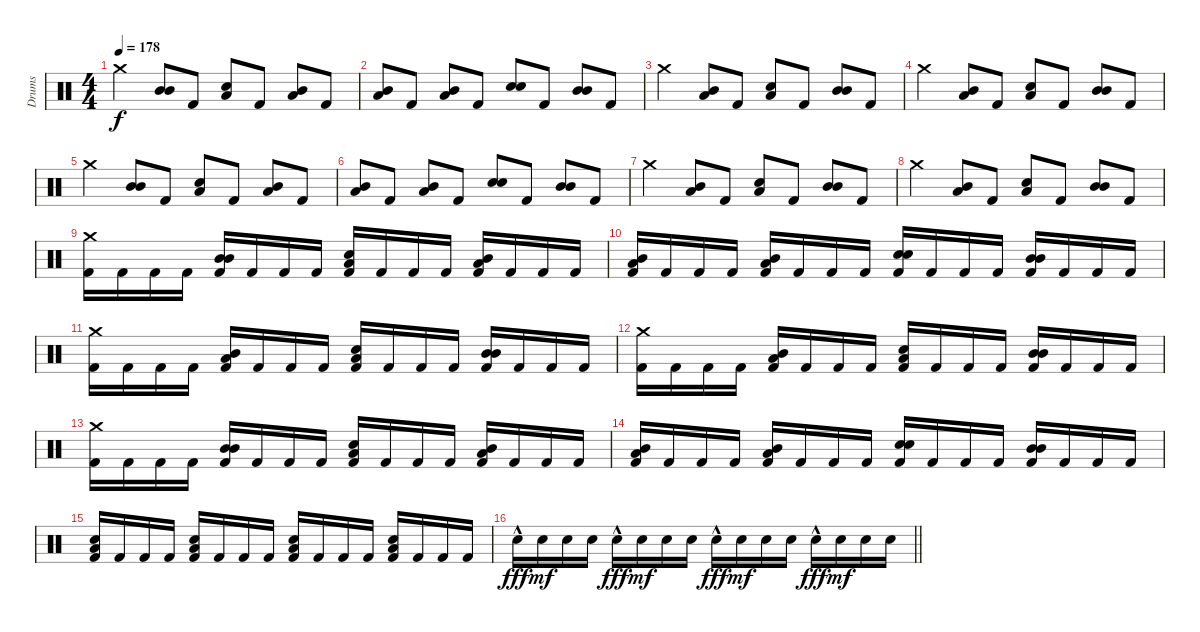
\track ("Drums" "Drums") {instrument percussion}
\staff {score}
\articulation defaults
\ts (4 4)
\tempo 178
\clef neutral
\ks c "Crash medium (hit)".4{dy f}
("Mid Tom (hit)" "Mid Tom (hit)").8 "Kick (hit) 2".8 ("Low Floor Tom (hit)" "Electric Snare (hit)").8 "Kick (hit) 2".8 ("Mid Tom (hit)" "Low Floor Tom (hit)").8 "Kick (hit) 2".8 |
("Mid Tom (hit)" "Low Floor Tom (hit)").8 "Kick (hit) 2".8 ("Mid Tom (hit)" "Low Floor Tom (hit)").8 "Kick (hit) 2".8 ("Electric Snare (hit)" "Electric Snare (hit)").8 "Kick (hit) 2".8 ("Mid Tom (hit)" "Mid Tom (hit)").8 "Kick (hit) 2".8 |
"Crash medium (hit)".4 ("Mid Tom (hit)" "Low Floor Tom (hit)").8 "Kick (hit) 2".8 ("Low Floor Tom (hit)" "Electric Snare (hit)").8 "Kick (hit) 2".8 ("Mid Tom (hit)" "Mid Tom (hit)").8 "Kick (hit) 2".8 |
"Crash medium (hit)".4 ("Mid Tom (hit)" "Low Floor Tom (hit)").8 "Kick (hit) 2".8 ("Low Floor Tom (hit)" "Electric Snare (hit)").8 "Kick (hit) 2".8 ("Mid Tom (hit)" "Mid Tom (hit)").8 "Kick (hit) 2".8 |
"Crash medium (hit)".4 ("Mid Tom (hit)" "Mid Tom (hit)").8 "Kick (hit) 2".8 ("Low Floor Tom (hit)" "Electric Snare (hit)").8 "Kick (hit) 2".8 ("Mid Tom (hit)" "Low Floor Tom (hit)").8 "Kick (hit) 2".8 |
("Mid Tom (hit)" "Low Floor Tom (hit)").8 "Kick (hit) 2".8 ("Mid Tom (hit)" "Low Floor Tom (hit)").8 "Kick (hit) 2".8 ("Electric Snare (hit)" "Electric Snare (hit)").8 "Kick (hit) 2".8 ("Mid Tom (hit)" "Mid Tom (hit)").8 "Kick (hit) 2".8 |
"Crash medium (hit)".4 ("Mid Tom (hit)" "Low Floor Tom (hit)").8 "Kick (hit) 2".8 ("Low Floor Tom (hit)" "Electric Snare (hit)").8 "Kick (hit) 2".8 ("Mid Tom (hit)" "Mid Tom (hit)").8 "Kick (hit) 2".8 |
"Crash medium (hit)".4 ("Mid Tom (hit)" "Low Floor Tom (hit)").8 "Kick (hit) 2".8 ("Low Floor Tom (hit)" "Electric Snare (hit)").8 "Kick (hit) 2".8 ("Mid Tom (hit)" "Mid Tom (hit)").8 "Kick (hit) 2".8 |
("Crash medium (hit)" "Kick (hit) 2").16 "Kick (hit) 2".16 "Kick (hit) 2".16 "Kick (hit) 2".16 ("Mid Tom (hit)" "Mid Tom (hit)" "Kick (hit) 2").16 "Kick (hit) 2".16 "Kick (hit) 2".16 "Kick (hit) 2".16 ("Low Floor Tom (hit)" "Electric Snare (hit)" "Kick (hit) 2").16 "Kick (hit) 2".16 "Kick (hit) 2".16 "Kick (hit) 2".16 ("Mid Tom (hit)" "Low Floor Tom (hit)" "Kick (hit) 2").16 "Kick (hit) 2".16 "Kick (hit) 2".16 "Kick (hit) 2".16 |
("Mid Tom (hit)" "Low Floor Tom (hit)" "Kick (hit) 2").16 "Kick (hit) 2".16 "Kick (hit) 2".16 "Kick (hit) 2".16 ("Mid Tom (hit)" "Low Floor Tom (hit)" "Kick (hit) 2").16 "Kick (hit) 2".16 "Kick (hit) 2".16 "Kick (hit) 2".16 ("Electric Snare (hit)" "Electric Snare (hit)" "Kick (hit) 2").16 "Kick (hit) 2".16 "Kick (hit) 2".16 "Kick (hit) 2".16 ("Mid Tom (hit)" "Mid Tom (hit)" "Kick (hit) 2").16 "Kick (hit) 2".16 "Kick (hit) 2".16 "Kick (hit) 2".16 |
("Crash medium (hit)" "Kick (hit) 2").16 "Kick (hit) 2".16 "Kick (hit) 2".16 "Kick (hit) 2".16 ("Mid Tom (hit)" "Low Floor Tom (hit)" "Kick (hit) 2").16 "Kick (hit) 2".16 "Kick (hit) 2".16 "Kick (hit) 2".16 ("Low Floor Tom (hit)" "Electric Snare (hit)" "Kick (hit) 2").16 "Kick (hit) 2".16 "Kick (hit) 2".16 "Kick (hit) 2".16 ("Mid Tom (hit)" "Mid Tom (hit)" "Kick (hit) 2").16 "Kick (hit) 2".16 "Kick (hit) 2".16 "Kick (hit) 2".16 |
("Crash medium (hit)" "Kick (hit) 2").16 "Kick (hit) 2".16 "Kick (hit) 2".16 "Kick (hit) 2".16 ("Mid Tom (hit)" "Low Floor Tom (hit)" "Kick (hit) 2").16 "Kick (hit) 2".16 "Kick (hit) 2".16 "Kick (hit) 2".16 ("Low Floor Tom (hit)" "Electric Snare (hit)" "Kick (hit) 2").16 "Kick (hit) 2".16 "Kick (hit) 2".16 "Kick (hit) 2".16 ("Mid Tom (hit)" "Mid Tom (hit)" "Kick (hit) 2").16 "Kick (hit) 2".16 "Kick (hit) 2".16 "Kick (hit) 2".16 |
("Crash medium (hit)" "Kick (hit) 2").16 "Kick (hit) 2".16 "Kick (hit) 2".16 "Kick (hit) 2".16 ("Mid Tom (hit)" "Mid Tom (hit)" "Kick (hit) 2").16 "Kick (hit) 2".16 "Kick (hit) 2".16 "Kick (hit) 2".16 ("Low Floor Tom (hit)" "Electric Snare (hit)" "Kick (hit) 2").16 "Kick (hit) 2".16 "Kick (hit) 2".16 "Kick (hit) 2".16 ("Mid Tom (hit)" "Low Floor Tom (hit)" "Kick (hit) 2").16 "Kick (hit) 2".16 "Kick (hit) 2".16 "Kick (hit) 2".16 |
("Mid Tom (hit)" "Low Floor Tom (hit)" "Kick (hit) 2").16 "Kick (hit) 2".16 "Kick (hit) 2".16 "Kick (hit) 2".16 ("Mid Tom (hit)" "Low Floor Tom (hit)" "Kick (hit) 2").16 "Kick (hit) 2".16 "Kick (hit) 2".16 "Kick (hit) 2".16 ("Electric Snare (hit)" "Electric Snare (hit)" "Kick (hit) 2").16 "Kick (hit) 2".16 "Kick (hit) 2".16 "Kick (hit) 2".16 ("Mid Tom (hit)" "Mid Tom (hit)" "Kick (hit) 2").16 "Kick (hit) 2".16 "Kick (hit) 2".16 "Kick (hit) 2".16 |
("Low Floor Tom (hit)" "Electric Snare (hit)" "Kick (hit) 2").16 "Kick (hit) 2".16 "Kick (hit) 2".16 "Kick (hit) 2".16 ("Low Floor Tom (hit)" "Electric Snare (hit)" "Kick (hit) 2").16 "Kick (hit) 2".16 "Kick (hit) 2".16 "Kick (hit) 2".16 ("Low Floor Tom (hit)" "Electric Snare (hit)" "Kick (hit) 2").16 "Kick (hit) 2".16 "Kick (hit) 2".16 "Kick (hit) 2".16 ("Low Floor Tom (hit)" "Electric Snare (hit)" "Kick (hit) 2").16 "Kick (hit) 2".16 "Kick (hit) 2".16 "Kick (hit) 2".16 |
\barLineRight lightlight "Electric Snare (hit)"{hac}.16{dy fff} "Electric Snare (hit)".16{dy mf} "Electric Snare (hit)".16 "Electric Snare (hit)".16 "Electric Snare (hit)"{hac}.16{dy fff} "Electric Snare (hit)".16{dy mf} "Electric Snare (hit)".16 "Electric Snare (hit)".16 "Electric Snare (hit)"{hac}.16{dy fff} "Electric Snare (hit)".16{dy mf} "Electric Snare (hit)".16 "Electric Snare (hit)".16 "Electric Snare (hit)"{hac}.16{dy fff} "Electric Snare (hit)".16{dy mf} "Electric Snare (hit)".16 "Electric Snare (hit)".16
